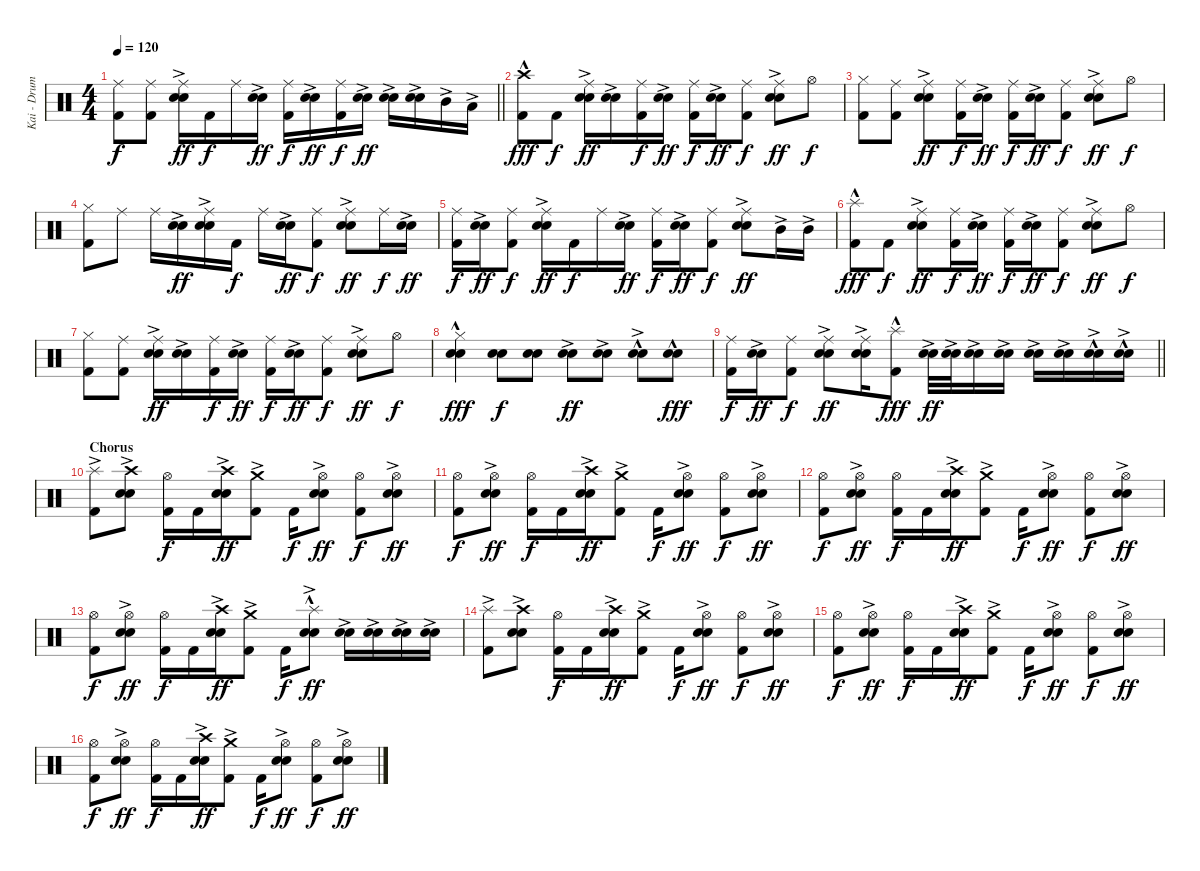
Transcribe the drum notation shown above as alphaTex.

\track ("Kai - Drums" "Kai - Drum") {instrument percussion}
\staff {score}
\articulation defaults
\ts (4 4)
\tempo 120
\clef neutral
\barLineRight lightlight
\ks c
("Ride (middle)" "Kick (hit) 2").8{dy f} ("Ride (middle)" "Kick (hit) 2").8 ("Ride (middle)" "Electric Snare (hit)"{ac} "Snare (hit) 2").16{dy ff} "Kick (hit) 2".16{dy f} "Ride (middle)".16 ("Electric Snare (hit)"{ac} "Snare (hit) 2").16{dy ff} ("Ride (middle)" "Kick (hit) 2").16{dy f} ("Electric Snare (hit)"{ac} "Snare (hit) 2").16{dy ff} ("Ride (middle)" "Kick (hit) 2").16{dy f} ("Electric Snare (hit)"{ac} "Snare (hit) 2").16{dy ff} ("Electric Snare (hit)"{ac} "Snare (hit) 2").16 ("Electric Snare (hit)"{ac} "Snare (hit) 2").16 "Mid Tom (hit)"{ac}.16 "Low Tom (hit)"{ac}.16 |
\section ("" "")
("Crash high (hit)"{hac} "Kick (hit) 2").8{dy fff} "Kick (hit) 2".8{dy f} ("Ride (middle)" "Electric Snare (hit)"{ac} "Snare (hit) 2").16{dy ff} ("Electric Snare (hit)"{ac} "Snare (hit) 2").16 ("Ride (middle)" "Kick (hit) 2").16{dy f} ("Electric Snare (hit)"{ac} "Snare (hit) 2").16{dy ff} ("Ride (middle)" "Kick (hit) 2").16{dy f} ("Electric Snare (hit)"{ac} "Snare (hit) 2").16{dy ff} ("Ride (middle)" "Kick (hit) 2").8{dy f} ("Ride (middle)" "Electric Snare (hit)"{ac} "Snare (hit) 2").8{dy ff} "Hi-Hat (open)".8{dy f} |
("Hi-Hat (closed)" "Kick (hit) 2").8 ("Ride (middle)" "Kick (hit) 2").8 ("Ride (middle)" "Electric Snare (hit)"{ac} "Snare (hit) 2").8{dy ff} ("Ride (middle)" "Kick (hit) 2").16{dy f} ("Electric Snare (hit)"{ac} "Snare (hit) 2").16{dy ff} ("Ride (middle)" "Kick (hit) 2").16{dy f} ("Electric Snare (hit)"{ac} "Snare (hit) 2").16{dy ff} ("Ride (middle)" "Kick (hit) 2").8{dy f} ("Ride (middle)" "Electric Snare (hit)"{ac} "Snare (hit) 2").8{dy ff} "Hi-Hat (open)".8{dy f} |
("Hi-Hat (closed)" "Kick (hit) 2").8 "Ride (middle)".8 "Ride (middle)".16 ("Electric Snare (hit)"{ac} "Snare (hit) 2").16{dy ff} ("Ride (middle)" "Electric Snare (hit)"{ac} "Snare (hit) 2").16 "Kick (hit) 2".16{dy f} "Ride (middle)".16 ("Electric Snare (hit)"{ac} "Snare (hit) 2").16{dy ff} ("Ride (middle)" "Kick (hit) 2").8{dy f} ("Ride (middle)" "Electric Snare (hit)"{ac} "Snare (hit) 2").8{dy ff} "Ride (middle)".16{dy f} ("Electric Snare (hit)"{ac} "Snare (hit) 2").16{dy ff} |
("Ride (middle)" "Kick (hit) 2").16{dy f} ("Electric Snare (hit)"{ac} "Snare (hit) 2").16{dy ff} ("Ride (middle)" "Kick (hit) 2").8{dy f} ("Ride (middle)" "Electric Snare (hit)"{ac} "Snare (hit) 2").16{dy ff} "Kick (hit) 2".16{dy f} "Ride (middle)".16 ("Electric Snare (hit)"{ac} "Snare (hit) 2").16{dy ff} ("Ride (middle)" "Kick (hit) 2").16{dy f} ("Electric Snare (hit)"{ac} "Snare (hit) 2").16{dy ff} ("Ride (middle)" "Kick (hit) 2").8{dy f} ("Ride (middle)" "Electric Snare (hit)"{ac} "Snare (hit) 2").8{dy ff} "Mid Tom (hit)"{ac}.16 "Mid Tom (hit)"{ac}.16 |
("Splash (hit)"{hac} "Kick (hit) 2").8{dy fff} "Kick (hit) 2".8{dy f} ("Ride (middle)" "Electric Snare (hit)"{ac} "Snare (hit) 2").8{dy ff} ("Ride (middle)" "Kick (hit) 2").16{dy f} ("Electric Snare (hit)"{ac} "Snare (hit) 2").16{dy ff} ("Ride (middle)" "Kick (hit) 2").16{dy f} ("Electric Snare (hit)"{ac} "Snare (hit) 2").16{dy ff} ("Ride (middle)" "Kick (hit) 2").8{dy f} ("Ride (middle)" "Electric Snare (hit)"{ac} "Snare (hit) 2").8{dy ff} "Hi-Hat (open)".8{dy f} |
("Hi-Hat (closed)" "Kick (hit) 2").8 ("Ride (middle)" "Kick (hit) 2").8 ("Ride (middle)" "Electric Snare (hit)"{ac} "Snare (hit) 2").16{dy ff} ("Electric Snare (hit)"{ac} "Snare (hit) 2").16 ("Ride (middle)" "Kick (hit) 2").16{dy f} ("Electric Snare (hit)"{ac} "Snare (hit) 2").16{dy ff} ("Ride (middle)" "Kick (hit) 2").16{dy f} ("Electric Snare (hit)"{ac} "Snare (hit) 2").16{dy ff} ("Ride (middle)" "Kick (hit) 2").8{dy f} ("Ride (middle)" "Electric Snare (hit)"{ac} "Snare (hit) 2").8{dy ff} "Hi-Hat (open)".8{dy f} |
("Hi-Hat (closed)" "Electric Snare (hit)"{hac} "Snare (hit) 2"{hac}).4{dy fff} ("Electric Snare (hit)" "Snare (hit) 2").8{dy f} ("Electric Snare (hit)" "Snare (hit) 2").8 ("Electric Snare (hit)"{ac} "Snare (hit) 2"{ac}).8{dy ff} ("Electric Snare (hit)"{ac} "Snare (hit) 2"{ac}).8 ("Electric Snare (hit)"{hac} "Snare (hit) 2"{ac}).8 ("Electric Snare (hit)"{hac} "Snare (hit) 2"{hac}).8{dy fff} |
\barLineRight lightlight
("Ride (middle)" "Kick (hit) 2").16{dy f} ("Electric Snare (hit)"{ac} "Snare (hit) 2").16{dy ff} ("Ride (middle)" "Kick (hit) 2").8{dy f} ("Ride (middle)" "Electric Snare (hit)"{ac} "Snare (hit) 2").8{dy ff} ("Ride (middle)" "Electric Snare (hit)"{ac} "Snare (hit) 2").16 ("Splash (hit)"{hac} "Kick (hit) 2").8{dy fff} ("Electric Snare (hit)"{ac} "Snare (hit) 2").32{dy ff} ("Electric Snare (hit)"{ac} "Snare (hit) 2").32 ("Electric Snare (hit)"{ac} "Snare (hit) 2").16 ("Electric Snare (hit)"{ac} "Snare (hit) 2").16 ("Electric Snare (hit)"{ac} "Snare (hit) 2"{ac}).16 ("Electric Snare (hit)"{ac} "Snare (hit) 2"{ac}).16 ("Electric Snare (hit)"{hac} "Snare (hit) 2"{ac}).16 ("Electric Snare (hit)"{hac} "Snare (hit) 2"{ac}).16 |
\section ("" "Chorus")
("Splash (hit)"{ac} "Kick (hit) 2").8 ("Crash high (hit)"{ac} "Electric Snare (hit)"{ac} "Snare (hit) 2"{ac}).8 ("Hi-Hat (open)" "Kick (hit) 2").16{dy f} "Kick (hit) 2".16 ("Crash high (hit)"{ac} "Electric Snare (hit)"{ac} "Snare (hit) 2"{ac}).16{dy ff} ("Crash medium (hit)"{ac} "Kick (hit) 2").8 "Kick (hit) 2".16{dy f} ("Hi-Hat (open)" "Electric Snare (hit)"{ac} "Snare (hit) 2"{ac}).8{dy ff} ("Hi-Hat (open)" "Kick (hit) 2").8{dy f} ("Hi-Hat (open)" "Electric Snare (hit)"{ac} "Snare (hit) 2"{ac}).8{dy ff} |
("Hi-Hat (open)" "Kick (hit) 2").8{dy f} ("Hi-Hat (open)" "Electric Snare (hit)"{ac} "Snare (hit) 2"{ac}).8{dy ff} ("Hi-Hat (open)" "Kick (hit) 2").16{dy f} "Kick (hit) 2".16 ("Crash high (hit)"{ac} "Electric Snare (hit)"{ac} "Snare (hit) 2"{ac}).16{dy ff} ("Crash medium (hit)"{ac} "Kick (hit) 2").8 "Kick (hit) 2".16{dy f} ("Hi-Hat (open)" "Electric Snare (hit)"{ac} "Snare (hit) 2"{ac}).8{dy ff} ("Hi-Hat (open)" "Kick (hit) 2").8{dy f} ("Hi-Hat (open)" "Electric Snare (hit)"{ac} "Snare (hit) 2"{ac}).8{dy ff} |
("Hi-Hat (open)" "Kick (hit) 2").8{dy f} ("Hi-Hat (open)" "Electric Snare (hit)"{ac} "Snare (hit) 2"{ac}).8{dy ff} ("Hi-Hat (open)" "Kick (hit) 2").16{dy f} "Kick (hit) 2".16 ("Crash high (hit)"{ac} "Electric Snare (hit)"{ac} "Snare (hit) 2"{ac}).16{dy ff} ("Crash medium (hit)"{ac} "Kick (hit) 2").8 "Kick (hit) 2".16{dy f} ("Hi-Hat (open)" "Electric Snare (hit)"{ac} "Snare (hit) 2"{ac}).8{dy ff} ("Hi-Hat (open)" "Kick (hit) 2").8{dy f} ("Hi-Hat (open)" "Electric Snare (hit)"{ac} "Snare (hit) 2"{ac}).8{dy ff} |
("Hi-Hat (open)" "Kick (hit) 2").8{dy f} ("Hi-Hat (open)" "Electric Snare (hit)"{ac} "Snare (hit) 2"{ac}).8{dy ff} ("Hi-Hat (open)" "Kick (hit) 2").16{dy f} "Kick (hit) 2".16 ("Crash high (hit)"{ac} "Electric Snare (hit)"{ac} "Snare (hit) 2"{ac}).16{dy ff} ("Crash medium (hit)"{ac} "Kick (hit) 2").8 "Kick (hit) 2".16{dy f} ("Splash (hit)"{hac} "Electric Snare (hit)"{ac} "Snare (hit) 2"{ac}).8{dy ff} ("Electric Snare (hit)"{ac} "Snare (hit) 2"{ac}).16 ("Electric Snare (hit)"{ac} "Snare (hit) 2"{ac}).16 ("Electric Snare (hit)"{ac} "Snare (hit) 2"{ac}).16 ("Electric Snare (hit)"{ac} "Snare (hit) 2"{ac}).16 |
("Splash (hit)"{ac} "Kick (hit) 2").8 ("Crash high (hit)"{ac} "Electric Snare (hit)"{ac} "Snare (hit) 2"{ac}).8 ("Hi-Hat (open)" "Kick (hit) 2").16{dy f} "Kick (hit) 2".16 ("Crash high (hit)"{ac} "Electric Snare (hit)"{ac} "Snare (hit) 2"{ac}).16{dy ff} ("Crash medium (hit)"{ac} "Kick (hit) 2").8 "Kick (hit) 2".16{dy f} ("Hi-Hat (open)" "Electric Snare (hit)"{ac} "Snare (hit) 2"{ac}).8{dy ff} ("Hi-Hat (open)" "Kick (hit) 2").8{dy f} ("Hi-Hat (open)" "Electric Snare (hit)"{ac} "Snare (hit) 2"{ac}).8{dy ff} |
("Hi-Hat (open)" "Kick (hit) 2").8{dy f} ("Hi-Hat (open)" "Electric Snare (hit)"{ac} "Snare (hit) 2"{ac}).8{dy ff} ("Hi-Hat (open)" "Kick (hit) 2").16{dy f} "Kick (hit) 2".16 ("Crash high (hit)"{ac} "Electric Snare (hit)"{ac} "Snare (hit) 2"{ac}).16{dy ff} ("Crash medium (hit)"{ac} "Kick (hit) 2").8 "Kick (hit) 2".16{dy f} ("Hi-Hat (open)" "Electric Snare (hit)"{ac} "Snare (hit) 2"{ac}).8{dy ff} ("Hi-Hat (open)" "Kick (hit) 2").8{dy f} ("Hi-Hat (open)" "Electric Snare (hit)"{ac} "Snare (hit) 2"{ac}).8{dy ff} |
("Hi-Hat (open)" "Kick (hit) 2").8{dy f} ("Hi-Hat (open)" "Electric Snare (hit)"{ac} "Snare (hit) 2"{ac}).8{dy ff} ("Hi-Hat (open)" "Kick (hit) 2").16{dy f} "Kick (hit) 2".16 ("Crash high (hit)"{ac} "Electric Snare (hit)"{ac} "Snare (hit) 2"{ac}).16{dy ff} ("Crash medium (hit)"{ac} "Kick (hit) 2").8 "Kick (hit) 2".16{dy f} ("Hi-Hat (open)" "Electric Snare (hit)"{ac} "Snare (hit) 2"{ac}).8{dy ff} ("Hi-Hat (open)" "Kick (hit) 2").8{dy f} ("Hi-Hat (open)" "Electric Snare (hit)"{ac} "Snare (hit) 2"{ac}).8{dy ff}
